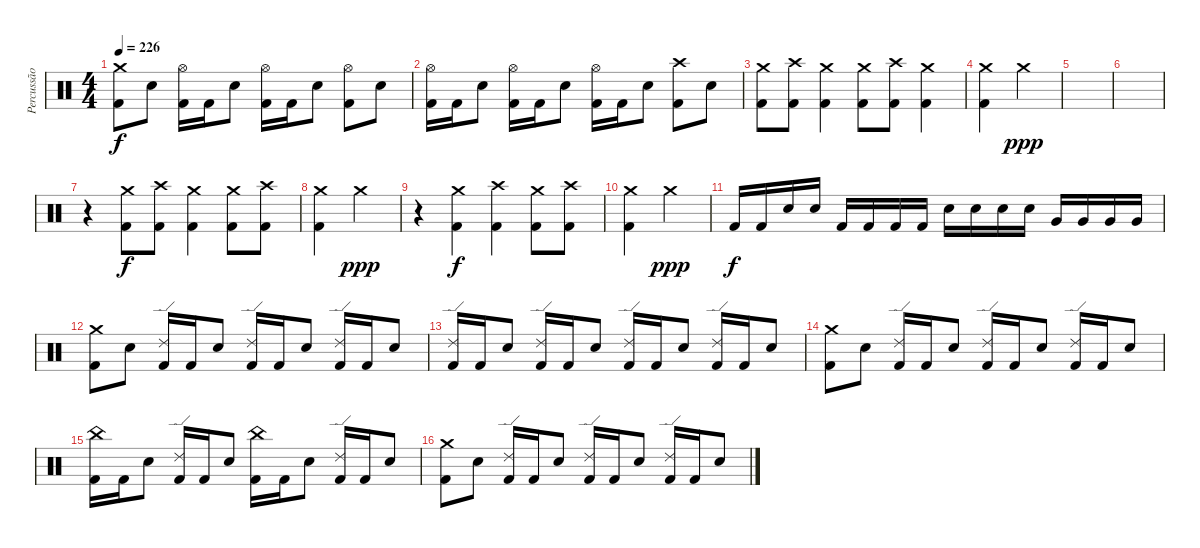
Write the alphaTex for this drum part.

\track ("Percussão" "Percussão") {instrument percussion}
\staff {score}
\articulation defaults
\ts (4 4)
\tempo 226
\clef neutral
\ks c
("Crash medium (hit)" "Kick (hit) 2").8{dy f} "Electric Snare (hit)".8 ("Hi-Hat (open)" "Kick (hit) 2").16 "Kick (hit) 2".16 "Electric Snare (hit)".8 ("Hi-Hat (open)" "Kick (hit) 2").16 "Kick (hit) 2".16 "Electric Snare (hit)".8 ("Hi-Hat (open)" "Kick (hit) 2").8 "Electric Snare (hit)".8 |
("Hi-Hat (open)" "Kick (hit) 2").16 "Kick (hit) 2".16 "Electric Snare (hit)".8 ("Hi-Hat (open)" "Kick (hit) 2").16 "Kick (hit) 2".16 "Electric Snare (hit)".8 ("Hi-Hat (open)" "Kick (hit) 2").16 "Kick (hit) 2".16 "Electric Snare (hit)".8 ("Crash high (hit)" "Kick (hit) 2").8 "Electric Snare (hit)".8 |
("Crash medium (hit)" "Kick (hit) 2").8 ("Crash high (hit)" "Kick (hit) 2").8 ("Crash medium (hit)" "Kick (hit) 2").4 ("Crash medium (hit)" "Kick (hit) 2").8 ("Crash high (hit)" "Kick (hit) 2").8 ("Crash medium (hit)" "Kick (hit) 2").4 |
("Crash medium (hit)" "Kick (hit) 2").4 "Crash medium (hit)".4{dy ppp} |
|
|
r.4 ("Crash medium (hit)" "Kick (hit) 2").8{dy f} ("Crash high (hit)" "Kick (hit) 2").8 ("Crash medium (hit)" "Kick (hit) 2").4 ("Crash medium (hit)" "Kick (hit) 2").8 ("Crash high (hit)" "Kick (hit) 2").8 |
("Crash medium (hit)" "Kick (hit) 2").4 "Crash medium (hit)".4{dy ppp} |
r.4 ("Crash medium (hit)" "Kick (hit) 2").4{dy f} ("Crash high (hit)" "Kick (hit) 2").4 ("Crash medium (hit)" "Kick (hit) 2").8 ("Crash high (hit)" "Kick (hit) 2").8 |
("Crash medium (hit)" "Kick (hit) 2").4 "Crash medium (hit)".4{dy ppp} |
"Kick (hit) 2".16{dy f} "Kick (hit) 2".16 "Electric Snare (hit)".16 "Electric Snare (hit)".16 "Kick (hit) 2".16 "Kick (hit) 2".16 "Kick (hit) 2".16 "Kick (hit) 2".16 "Electric Snare (hit)".16 "Electric Snare (hit)".16 "Electric Snare (hit)".16 "Electric Snare (hit)".16 "Very Low Tom (hit)".16 "Very Low Tom (hit)".16 "Very Low Tom (hit)".16 "Very Low Tom (hit)".16 |
("Crash medium (hit)" "Kick (hit) 2").8 "Electric Snare (hit)".8 ("Ride (edge) 2" "Kick (hit) 2").16 "Kick (hit) 2".16 "Electric Snare (hit)".8 ("Ride (edge) 2" "Kick (hit) 2").16 "Kick (hit) 2".16 "Electric Snare (hit)".8 ("Ride (edge) 2" "Kick (hit) 2").16 "Kick (hit) 2".16 "Electric Snare (hit)".8 |
("Ride (edge) 2" "Kick (hit) 2").16 "Kick (hit) 2".16 "Electric Snare (hit)".8 ("Ride (edge) 2" "Kick (hit) 2").16 "Kick (hit) 2".16 "Electric Snare (hit)".8 ("Ride (edge) 2" "Kick (hit) 2").16 "Kick (hit) 2".16 "Electric Snare (hit)".8 ("Ride (edge) 2" "Kick (hit) 2").16 "Kick (hit) 2".16 "Electric Snare (hit)".8 |
("Crash medium (hit)" "Kick (hit) 2").8 "Electric Snare (hit)".8 ("Ride (edge) 2" "Kick (hit) 2").16 "Kick (hit) 2".16 "Electric Snare (hit)".8 ("Ride (edge) 2" "Kick (hit) 2").16 "Kick (hit) 2".16 "Electric Snare (hit)".8 ("Ride (edge) 2" "Kick (hit) 2").16 "Kick (hit) 2".16 "Electric Snare (hit)".8 |
("China (hit)" "Kick (hit) 2").16 "Kick (hit) 2".16 "Electric Snare (hit)".8 ("Ride (edge) 2" "Kick (hit) 2").16 "Kick (hit) 2".16 "Electric Snare (hit)".8 ("China (hit)" "Kick (hit) 2").16 "Kick (hit) 2".16 "Electric Snare (hit)".8 ("Ride (edge) 2" "Kick (hit) 2").16 "Kick (hit) 2".16 "Electric Snare (hit)".8 |
("Crash medium (hit)" "Kick (hit) 2").8 "Electric Snare (hit)".8 ("Ride (edge) 2" "Kick (hit) 2").16 "Kick (hit) 2".16 "Electric Snare (hit)".8 ("Ride (edge) 2" "Kick (hit) 2").16 "Kick (hit) 2".16 "Electric Snare (hit)".8 ("Ride (edge) 2" "Kick (hit) 2").16 "Kick (hit) 2".16 "Electric Snare (hit)".8
